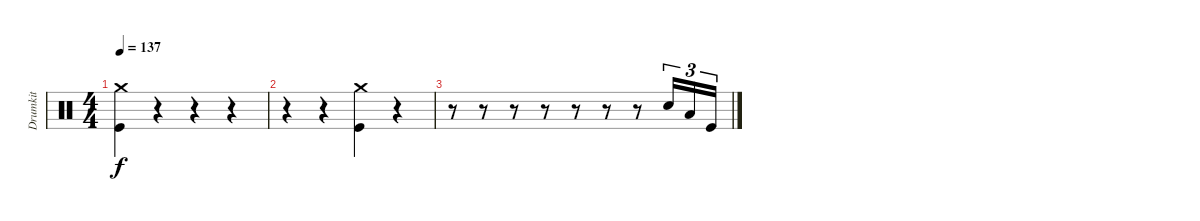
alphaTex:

\track ("Drumkit" "Drumkit") {instrument percussion}
\staff {score}
\articulation defaults
\ts (4 4)
\tempo 137
\clef neutral
\ks c
("Crash medium (hit)" "Kick (hit)").4{dy f} r.4 r.4 r.4 |
r.4 r.4 ("Crash medium (hit)" "Kick (hit)").4 r.4 |
r.8 r.8 r.8 r.8 r.8 r.8 r.8 "Snare (hit) 2".16{tu (3 2)} "Low Tom (hit)".16{tu (3 2)} "Kick (hit)".16{tu (3 2)}
